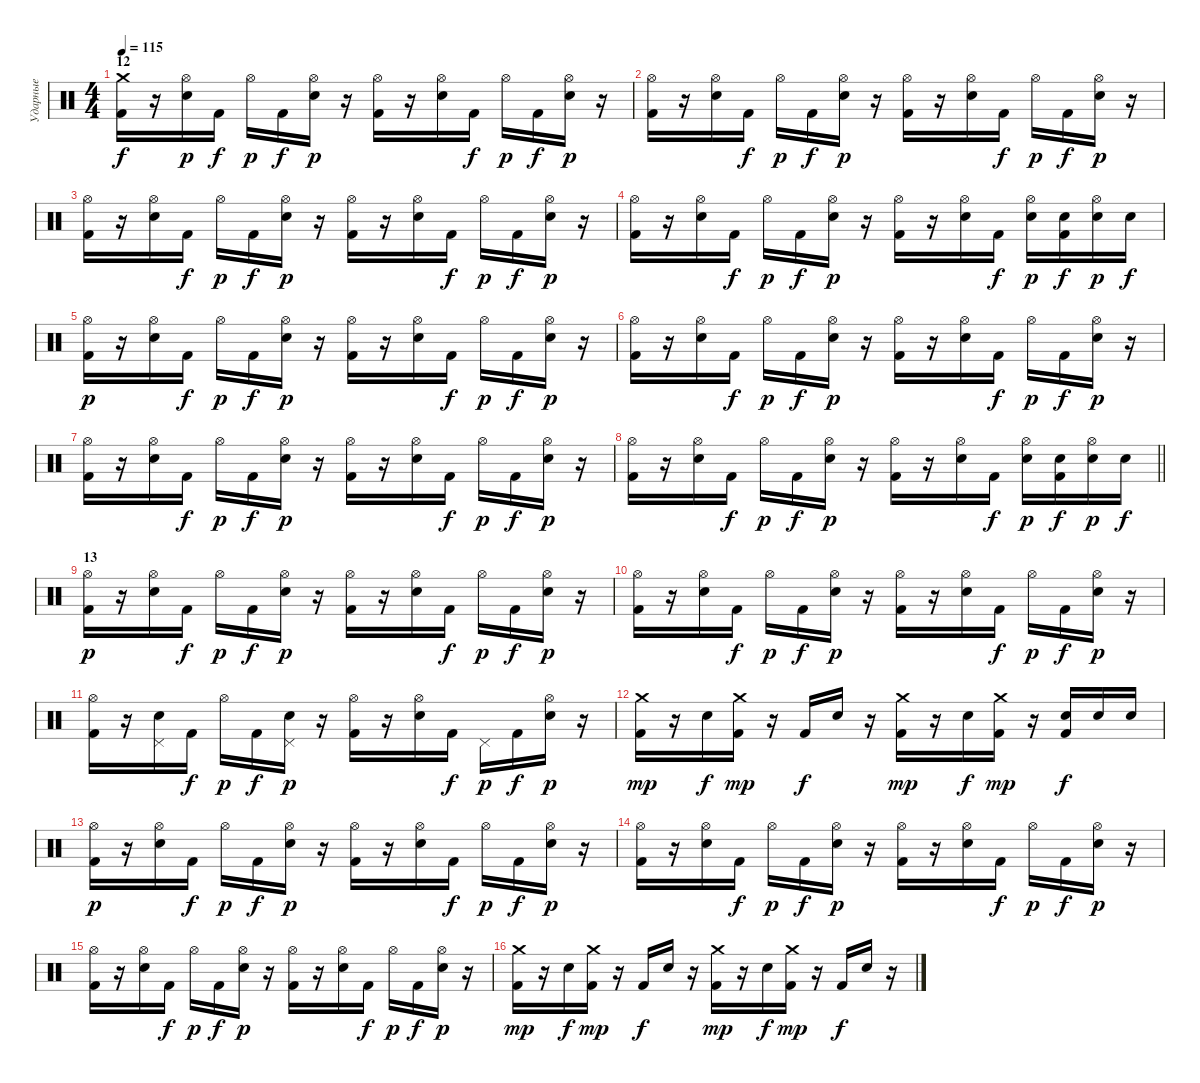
\track ("Ударные" "Ударные") {instrument percussion}
\staff {score}
\articulation defaults
\ts (4 4)
\section ("" "12")
\tempo 115
\clef neutral
\ks c
("Crash medium (hit)" "Kick (hit) 2").16{dy f} r.16 ("Hi-Hat (open)" "Snare (hit) 2").16{dy p} "Kick (hit) 2".16{dy f} "Hi-Hat (open)".16{dy p} "Kick (hit) 2".16{dy f} ("Hi-Hat (open)" "Snare (hit) 2").16{dy p} r.16 ("Hi-Hat (open)" "Kick (hit) 2").16 r.16 ("Hi-Hat (open)" "Snare (hit) 2").16 "Kick (hit) 2".16{dy f} "Hi-Hat (open)".16{dy p} "Kick (hit) 2".16{dy f} ("Hi-Hat (open)" "Snare (hit) 2").16{dy p} r.16 |
("Hi-Hat (open)" "Kick (hit) 2").16 r.16 ("Hi-Hat (open)" "Snare (hit) 2").16 "Kick (hit) 2".16{dy f} "Hi-Hat (open)".16{dy p} "Kick (hit) 2".16{dy f} ("Hi-Hat (open)" "Snare (hit) 2").16{dy p} r.16 ("Hi-Hat (open)" "Kick (hit) 2").16 r.16 ("Hi-Hat (open)" "Snare (hit) 2").16 "Kick (hit) 2".16{dy f} "Hi-Hat (open)".16{dy p} "Kick (hit) 2".16{dy f} ("Hi-Hat (open)" "Snare (hit) 2").16{dy p} r.16 |
("Hi-Hat (open)" "Kick (hit) 2").16 r.16 ("Hi-Hat (open)" "Snare (hit) 2").16 "Kick (hit) 2".16{dy f} "Hi-Hat (open)".16{dy p} "Kick (hit) 2".16{dy f} ("Hi-Hat (open)" "Snare (hit) 2").16{dy p} r.16 ("Hi-Hat (open)" "Kick (hit) 2").16 r.16 ("Hi-Hat (open)" "Snare (hit) 2").16 "Kick (hit) 2".16{dy f} "Hi-Hat (open)".16{dy p} "Kick (hit) 2".16{dy f} ("Hi-Hat (open)" "Snare (hit) 2").16{dy p} r.16 |
("Hi-Hat (open)" "Kick (hit) 2").16 r.16 ("Hi-Hat (open)" "Snare (hit) 2").16 "Kick (hit) 2".16{dy f} "Hi-Hat (open)".16{dy p} "Kick (hit) 2".16{dy f} ("Hi-Hat (open)" "Snare (hit) 2").16{dy p} r.16 ("Hi-Hat (open)" "Kick (hit) 2").16 r.16 ("Hi-Hat (open)" "Snare (hit) 2").16 "Kick (hit) 2".16{dy f} ("Hi-Hat (open)" "Snare (hit) 2").16{dy p} ("Snare (hit) 2" "Kick (hit) 2").16{dy f} ("Hi-Hat (open)" "Snare (hit) 2").16{dy p} "Snare (hit) 2".16{dy f} |
("Hi-Hat (open)" "Kick (hit) 2").16{dy p} r.16 ("Hi-Hat (open)" "Snare (hit) 2").16 "Kick (hit) 2".16{dy f} "Hi-Hat (open)".16{dy p} "Kick (hit) 2".16{dy f} ("Hi-Hat (open)" "Snare (hit) 2").16{dy p} r.16 ("Hi-Hat (open)" "Kick (hit) 2").16 r.16 ("Hi-Hat (open)" "Snare (hit) 2").16 "Kick (hit) 2".16{dy f} "Hi-Hat (open)".16{dy p} "Kick (hit) 2".16{dy f} ("Hi-Hat (open)" "Snare (hit) 2").16{dy p} r.16 |
("Hi-Hat (open)" "Kick (hit) 2").16 r.16 ("Hi-Hat (open)" "Snare (hit) 2").16 "Kick (hit) 2".16{dy f} "Hi-Hat (open)".16{dy p} "Kick (hit) 2".16{dy f} ("Hi-Hat (open)" "Snare (hit) 2").16{dy p} r.16 ("Hi-Hat (open)" "Kick (hit) 2").16 r.16 ("Hi-Hat (open)" "Snare (hit) 2").16 "Kick (hit) 2".16{dy f} "Hi-Hat (open)".16{dy p} "Kick (hit) 2".16{dy f} ("Hi-Hat (open)" "Snare (hit) 2").16{dy p} r.16 |
("Hi-Hat (open)" "Kick (hit) 2").16 r.16 ("Hi-Hat (open)" "Snare (hit) 2").16 "Kick (hit) 2".16{dy f} "Hi-Hat (open)".16{dy p} "Kick (hit) 2".16{dy f} ("Hi-Hat (open)" "Snare (hit) 2").16{dy p} r.16 ("Hi-Hat (open)" "Kick (hit) 2").16 r.16 ("Hi-Hat (open)" "Snare (hit) 2").16 "Kick (hit) 2".16{dy f} "Hi-Hat (open)".16{dy p} "Kick (hit) 2".16{dy f} ("Hi-Hat (open)" "Snare (hit) 2").16{dy p} r.16 |
\barLineRight lightlight
("Hi-Hat (open)" "Kick (hit) 2").16 r.16 ("Hi-Hat (open)" "Snare (hit) 2").16 "Kick (hit) 2".16{dy f} "Hi-Hat (open)".16{dy p} "Kick (hit) 2".16{dy f} ("Hi-Hat (open)" "Snare (hit) 2").16{dy p} r.16 ("Hi-Hat (open)" "Kick (hit) 2").16 r.16 ("Hi-Hat (open)" "Snare (hit) 2").16 "Kick (hit) 2".16{dy f} ("Hi-Hat (open)" "Snare (hit) 2").16{dy p} ("Snare (hit) 2" "Kick (hit) 2").16{dy f} ("Hi-Hat (open)" "Snare (hit) 2").16{dy p} "Snare (hit) 2".16{dy f} |
\section ("" "13")
("Hi-Hat (open)" "Kick (hit) 2").16{dy p} r.16 ("Hi-Hat (open)" "Snare (hit) 2").16 "Kick (hit) 2".16{dy f} "Hi-Hat (open)".16{dy p} "Kick (hit) 2".16{dy f} ("Hi-Hat (open)" "Snare (hit) 2").16{dy p} r.16 ("Hi-Hat (open)" "Kick (hit) 2").16 r.16 ("Hi-Hat (open)" "Snare (hit) 2").16 "Kick (hit) 2".16{dy f} "Hi-Hat (open)".16{dy p} "Kick (hit) 2".16{dy f} ("Hi-Hat (open)" "Snare (hit) 2").16{dy p} r.16 |
("Hi-Hat (open)" "Kick (hit) 2").16 r.16 ("Hi-Hat (open)" "Snare (hit) 2").16 "Kick (hit) 2".16{dy f} "Hi-Hat (open)".16{dy p} "Kick (hit) 2".16{dy f} ("Hi-Hat (open)" "Snare (hit) 2").16{dy p} r.16 ("Hi-Hat (open)" "Kick (hit) 2").16 r.16 ("Hi-Hat (open)" "Snare (hit) 2").16 "Kick (hit) 2".16{dy f} "Hi-Hat (open)".16{dy p} "Kick (hit) 2".16{dy f} ("Hi-Hat (open)" "Snare (hit) 2").16{dy p} r.16 |
("Hi-Hat (open)" "Kick (hit) 2").16 r.16 ("Pedal Hi-Hat (hit)" "Snare (hit) 2").16 "Kick (hit) 2".16{dy f} "Hi-Hat (open)".16{dy p} "Kick (hit) 2".16{dy f} ("Pedal Hi-Hat (hit)" "Snare (hit) 2").16{dy p} r.16 ("Hi-Hat (open)" "Kick (hit) 2").16 r.16 ("Hi-Hat (open)" "Snare (hit) 2").16 "Kick (hit) 2".16{dy f} "Pedal Hi-Hat (hit)".16{dy p} "Kick (hit) 2".16{dy f} ("Hi-Hat (open)" "Snare (hit) 2").16{dy p} r.16 |
("Crash medium (hit)" "Kick (hit) 2").16{dy mp} r.16 "Snare (hit) 2".16{dy f} ("Crash medium (hit)" "Kick (hit) 2").16{dy mp} r.16 "Kick (hit) 2".16{dy f} "Snare (hit) 2".16 r.16 ("Crash medium (hit)" "Kick (hit) 2").16{dy mp} r.16 "Snare (hit) 2".16{dy f} ("Crash medium (hit)" "Kick (hit) 2").16{dy mp} r.16 ("Snare (hit) 2" "Kick (hit) 2").16{dy f} "Snare (hit) 2".16 "Snare (hit) 2".16 |
("Hi-Hat (open)" "Kick (hit) 2").16{dy p} r.16 ("Hi-Hat (open)" "Snare (hit) 2").16 "Kick (hit) 2".16{dy f} "Hi-Hat (open)".16{dy p} "Kick (hit) 2".16{dy f} ("Hi-Hat (open)" "Snare (hit) 2").16{dy p} r.16 ("Hi-Hat (open)" "Kick (hit) 2").16 r.16 ("Hi-Hat (open)" "Snare (hit) 2").16 "Kick (hit) 2".16{dy f} "Hi-Hat (open)".16{dy p} "Kick (hit) 2".16{dy f} ("Hi-Hat (open)" "Snare (hit) 2").16{dy p} r.16 |
("Hi-Hat (open)" "Kick (hit) 2").16 r.16 ("Hi-Hat (open)" "Snare (hit) 2").16 "Kick (hit) 2".16{dy f} "Hi-Hat (open)".16{dy p} "Kick (hit) 2".16{dy f} ("Hi-Hat (open)" "Snare (hit) 2").16{dy p} r.16 ("Hi-Hat (open)" "Kick (hit) 2").16 r.16 ("Hi-Hat (open)" "Snare (hit) 2").16 "Kick (hit) 2".16{dy f} "Hi-Hat (open)".16{dy p} "Kick (hit) 2".16{dy f} ("Hi-Hat (open)" "Snare (hit) 2").16{dy p} r.16 |
("Hi-Hat (open)" "Kick (hit) 2").16 r.16 ("Hi-Hat (open)" "Snare (hit) 2").16 "Kick (hit) 2".16{dy f} "Hi-Hat (open)".16{dy p} "Kick (hit) 2".16{dy f} ("Hi-Hat (open)" "Snare (hit) 2").16{dy p} r.16 ("Hi-Hat (open)" "Kick (hit) 2").16 r.16 ("Hi-Hat (open)" "Snare (hit) 2").16 "Kick (hit) 2".16{dy f} "Hi-Hat (open)".16{dy p} "Kick (hit) 2".16{dy f} ("Hi-Hat (open)" "Snare (hit) 2").16{dy p} r.16 |
("Crash medium (hit)" "Kick (hit) 2").16{dy mp} r.16 "Snare (hit) 2".16{dy f} ("Crash medium (hit)" "Kick (hit) 2").16{dy mp} r.16 "Kick (hit) 2".16{dy f} "Snare (hit) 2".16 r.16 ("Crash medium (hit)" "Kick (hit) 2").16{dy mp} r.16 "Snare (hit) 2".16{dy f} ("Crash medium (hit)" "Kick (hit) 2").16{dy mp} r.16 "Kick (hit) 2".16{dy f} "Snare (hit) 2".16 r.16
